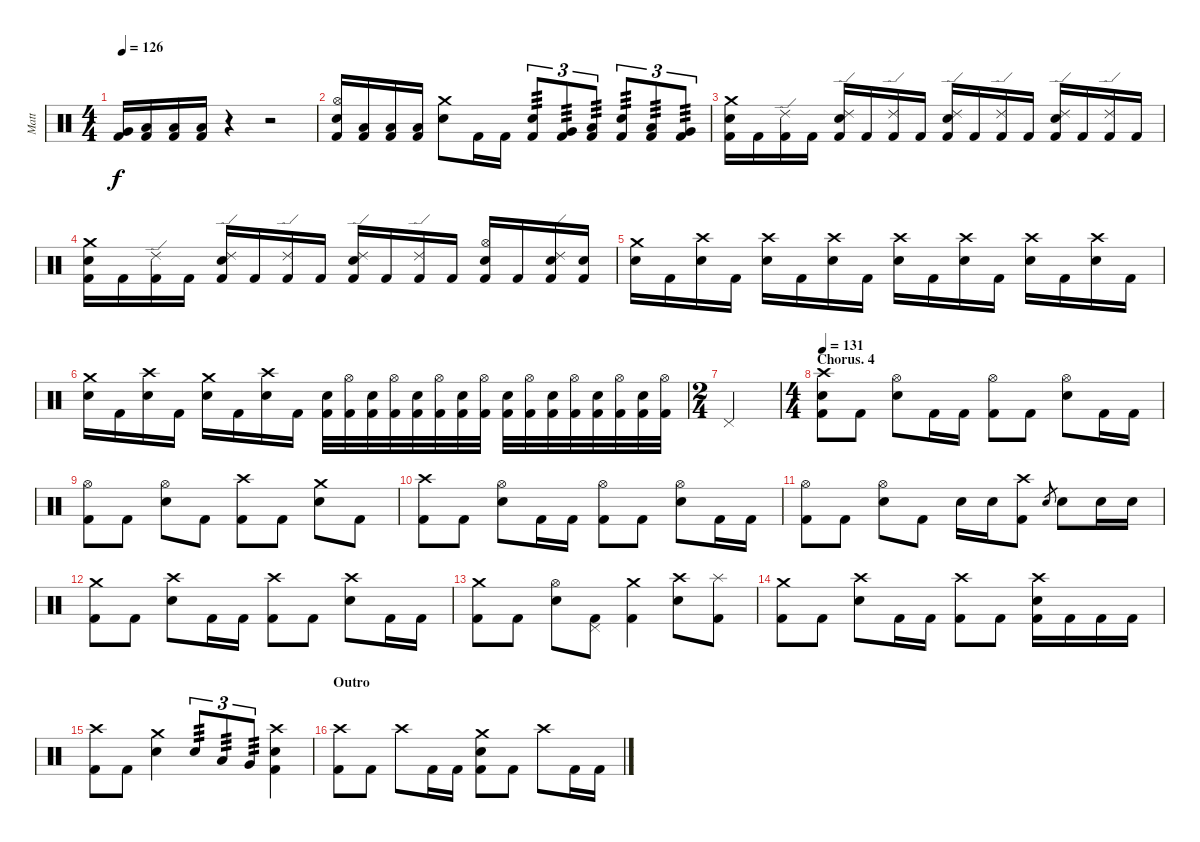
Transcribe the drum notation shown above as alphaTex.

\track ("Matt" "Matt") {instrument percussion}
\staff {score}
\articulation defaults
\ts (4 4)
\tempo 126
\clef neutral
\ks c
("Very Low Tom (hit)" "Kick (hit) 2").16{dy f} ("Low Floor Tom (hit)" "Kick (hit) 2").16 ("Low Floor Tom (hit)" "Kick (hit) 2").16 ("Low Floor Tom (hit)" "Kick (hit) 2").16 r.4 r.2 |
("Hi-Hat (open)" "Electric Snare (hit)" "Kick (hit) 2").16 ("Low Floor Tom (hit)" "Kick (hit) 2").16 ("Low Floor Tom (hit)" "Kick (hit) 2").16 ("Low Floor Tom (hit)" "Kick (hit) 2").16 ("Crash medium (hit)" "Electric Snare (hit)").8 "Kick (hit) 2".16 "Kick (hit) 2".16 ("Electric Snare (hit)" "Kick (hit) 2").8{tu (3 2) tp 3} ("Very Low Tom (hit)" "Kick (hit) 2").8{tu (3 2) tp 3} ("Low Floor Tom (hit)" "Kick (hit) 2").8{tu (3 2) tp 3} ("Electric Snare (hit)" "Kick (hit) 2").8{tu (3 2) tp 3} ("Low Tom (hit)" "Kick (hit) 2").8{tu (3 2) tp 3} ("Very Low Tom (hit)" "Kick (hit) 2").8{tu (3 2) tp 3} |
("Crash medium (hit)" "Electric Snare (hit)" "Kick (hit) 2").16 "Kick (hit) 2".16 ("Ride (edge) 2" "Kick (hit) 2").16 "Kick (hit) 2".16 ("Ride (edge) 2" "Electric Snare (hit)" "Kick (hit) 2").16 "Kick (hit) 2".16 ("Ride (edge) 2" "Kick (hit) 2").16 "Kick (hit) 2".16 ("Ride (edge) 2" "Electric Snare (hit)" "Kick (hit) 2").16 "Kick (hit) 2".16 ("Ride (edge) 2" "Kick (hit) 2").16 "Kick (hit) 2".16 ("Ride (edge) 2" "Electric Snare (hit)" "Kick (hit) 2").16 "Kick (hit) 2".16 ("Ride (edge) 2" "Kick (hit) 2").16 "Kick (hit) 2".16 |
("Crash medium (hit)" "Electric Snare (hit)" "Kick (hit) 2").16 "Kick (hit) 2".16 ("Ride (edge) 2" "Kick (hit) 2").16 "Kick (hit) 2".16 ("Ride (edge) 2" "Electric Snare (hit)" "Kick (hit) 2").16 "Kick (hit) 2".16 ("Ride (edge) 2" "Kick (hit) 2").16 "Kick (hit) 2".16 ("Ride (edge) 2" "Electric Snare (hit)" "Kick (hit) 2").16 "Kick (hit) 2".16 ("Ride (edge) 2" "Kick (hit) 2").16 "Kick (hit) 2".16 ("Hi-Hat (open)" "Electric Snare (hit)" "Kick (hit) 2").16 "Kick (hit) 2".16 ("Ride (edge) 2" "Electric Snare (hit)" "Kick (hit) 2").16 ("Electric Snare (hit)" "Kick (hit) 2").16 |
("Crash medium (hit)" "Electric Snare (hit)").16 "Kick (hit) 2".16 ("Crash high (hit)" "Electric Snare (hit)").16 "Kick (hit) 2".16 ("Crash high (hit)" "Electric Snare (hit)").16 "Kick (hit) 2".16 ("Crash high (hit)" "Electric Snare (hit)").16 "Kick (hit) 2".16 ("Crash high (hit)" "Electric Snare (hit)").16 "Kick (hit) 2".16 ("Crash high (hit)" "Electric Snare (hit)").16 "Kick (hit) 2".16 ("Crash high (hit)" "Electric Snare (hit)").16 "Kick (hit) 2".16 ("Crash high (hit)" "Electric Snare (hit)").16 "Kick (hit) 2".16 |
("Crash medium (hit)" "Electric Snare (hit)").16 "Kick (hit) 2".16 ("Crash high (hit)" "Electric Snare (hit)").16 "Kick (hit) 2".16 ("Crash medium (hit)" "Electric Snare (hit)").16 "Kick (hit) 2".16 ("Crash high (hit)" "Electric Snare (hit)").16 "Kick (hit) 2".16 ("Electric Snare (hit)" "Kick (hit) 2").32 ("Hi-Hat (open)" "Kick (hit) 2").32 ("Electric Snare (hit)" "Kick (hit) 2").32 ("Hi-Hat (open)" "Kick (hit) 2").32 ("Electric Snare (hit)" "Kick (hit) 2").32 ("Hi-Hat (open)" "Kick (hit) 2").32 ("Electric Snare (hit)" "Kick (hit) 2").32 ("Hi-Hat (open)" "Kick (hit) 2").32 ("Electric Snare (hit)" "Kick (hit) 2").32 ("Hi-Hat (open)" "Kick (hit) 2").32 ("Electric Snare (hit)" "Kick (hit) 2").32 ("Hi-Hat (open)" "Kick (hit) 2").32 ("Electric Snare (hit)" "Kick (hit) 2").32 ("Hi-Hat (open)" "Kick (hit) 2").32 ("Electric Snare (hit)" "Kick (hit) 2").32 ("Hi-Hat (open)" "Kick (hit) 2").32 |
\ts (2 4)
"Pedal Hi-Hat (hit)".2 |
\ts (4 4)
\section ("" "Chorus. 4")
\tempo 131
("Crash high (hit)" "Electric Snare (hit)" "Kick (hit) 2").8 "Kick (hit) 2".8 ("Hi-Hat (open)" "Electric Snare (hit)").8 "Kick (hit) 2".16 "Kick (hit) 2".16 ("Hi-Hat (open)" "Kick (hit) 2").8 "Kick (hit) 2".8 ("Hi-Hat (open)" "Electric Snare (hit)").8 "Kick (hit) 2".16 "Kick (hit) 2".16 |
("Hi-Hat (open)" "Kick (hit) 2").8 "Kick (hit) 2".8 ("Hi-Hat (open)" "Electric Snare (hit)").8 "Kick (hit) 2".8 ("Crash high (hit)" "Kick (hit) 2").8 "Kick (hit) 2".8 ("Crash medium (hit)" "Electric Snare (hit)").8 "Kick (hit) 2".8 |
("Crash high (hit)" "Kick (hit) 2").8 "Kick (hit) 2".8 ("Hi-Hat (open)" "Electric Snare (hit)").8 "Kick (hit) 2".16 "Kick (hit) 2".16 ("Hi-Hat (open)" "Kick (hit) 2").8 "Kick (hit) 2".8 ("Hi-Hat (open)" "Electric Snare (hit)").8 "Kick (hit) 2".16 "Kick (hit) 2".16 |
("Hi-Hat (open)" "Kick (hit) 2").8 "Kick (hit) 2".8 ("Hi-Hat (open)" "Electric Snare (hit)").8 "Kick (hit) 2".8 "Electric Snare (hit)".16 "Electric Snare (hit)".16 ("Crash high (hit)" "Kick (hit) 2").8 "Electric Snare (hit)".8{gr} "Electric Snare (hit)".8 "Electric Snare (hit)".16 "Electric Snare (hit)".16 |
("Crash medium (hit)" "Kick (hit) 2").8 "Kick (hit) 2".8 ("Crash high (hit)" "Electric Snare (hit)").8 "Kick (hit) 2".16 "Kick (hit) 2".16 ("Crash high (hit)" "Kick (hit) 2").8 "Kick (hit) 2".8 ("Crash high (hit)" "Electric Snare (hit)").8 "Kick (hit) 2".16 "Kick (hit) 2".16 |
("Crash medium (hit)" "Kick (hit) 2").8 "Kick (hit) 2".8 ("Hi-Hat (open)" "Electric Snare (hit)").8 ("Pedal Hi-Hat (hit)" "Kick (hit) 2").8 ("Crash medium (hit)" "Kick (hit) 2").4 ("Crash high (hit)" "Electric Snare (hit)").8 ("Splash (hit)" "Kick (hit) 2").8 |
("Crash medium (hit)" "Kick (hit) 2").8 "Kick (hit) 2".8 ("Crash high (hit)" "Electric Snare (hit)").8 "Kick (hit) 2".16 "Kick (hit) 2".16 ("Crash high (hit)" "Kick (hit) 2").8 "Kick (hit) 2".8 ("Crash high (hit)" "Electric Snare (hit)" "Kick (hit) 2").16 "Kick (hit) 2".16 "Kick (hit) 2".16 "Kick (hit) 2".16 |
("Crash high (hit)" "Kick (hit) 2").8 "Kick (hit) 2".8 ("Crash medium (hit)" "Electric Snare (hit)").4 "Electric Snare (hit)".8{tu (3 2) tp 3} "Low Tom (hit)".8{tu (3 2) tp 3} "Very Low Tom (hit)".8{tu (3 2) tp 3} ("Crash high (hit)" "Electric Snare (hit)" "Kick (hit) 2").4 |
\section ("" "Outro")
("Crash high (hit)" "Kick (hit) 2").8 "Kick (hit) 2".8 "Crash high (hit)".8 "Kick (hit) 2".16 "Kick (hit) 2".16 ("Crash medium (hit)" "Electric Snare (hit)" "Kick (hit) 2").8 "Kick (hit) 2".8 "Crash high (hit)".8 "Kick (hit) 2".16 "Kick (hit) 2".16
